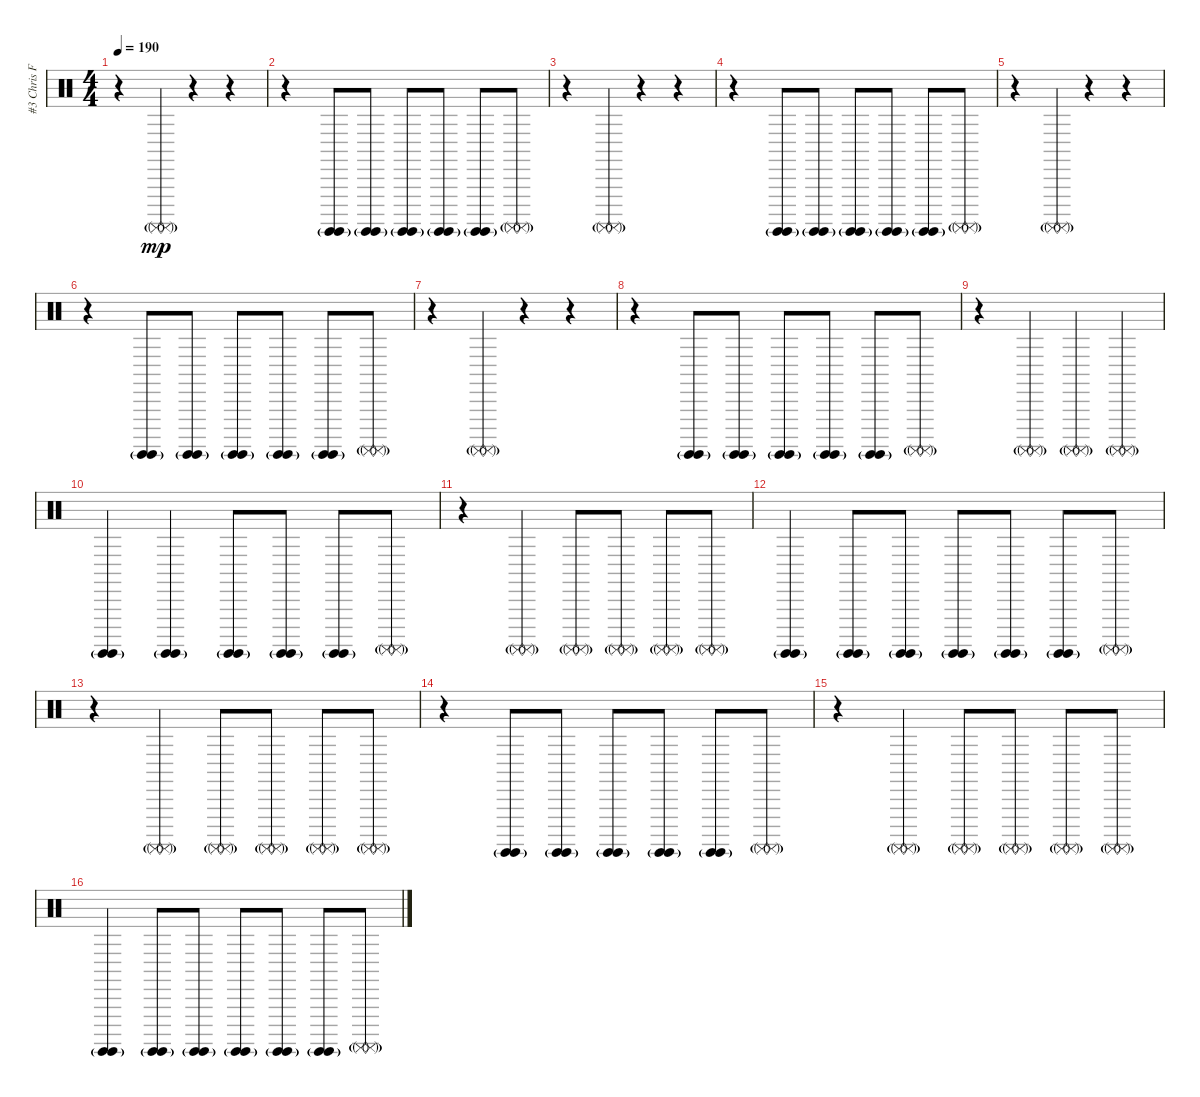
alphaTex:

\track ("#3 Chris Fehn" "#3 Chris F") {instrument percussion}
\staff {score}
\articulation defaults
\ts (4 4)
\tempo 190
\clef neutral
\ks c
r.4{dy mp} ("Surdo (mute)"{g} "Surdo (mute)"{g}).4 r.4 r.4 |
r.4 ("Surdo (hit)"{g} "Surdo (hit)"{g}).8 ("Surdo (hit)"{g} "Surdo (hit)"{g}).8 ("Surdo (hit)"{g} "Surdo (hit)"{g}).8 ("Surdo (hit)"{g} "Surdo (hit)"{g}).8 ("Surdo (hit)"{g} "Surdo (hit)"{g}).8 ("Surdo (mute)"{g} "Surdo (mute)"{g}).8 |
r.4 ("Surdo (mute)"{g} "Surdo (mute)"{g}).4 r.4 r.4 |
r.4 ("Surdo (hit)"{g} "Surdo (hit)"{g}).8 ("Surdo (hit)"{g} "Surdo (hit)"{g}).8 ("Surdo (hit)"{g} "Surdo (hit)"{g}).8 ("Surdo (hit)"{g} "Surdo (hit)"{g}).8 ("Surdo (hit)"{g} "Surdo (hit)"{g}).8 ("Surdo (mute)"{g} "Surdo (mute)"{g}).8 |
r.4 ("Surdo (mute)"{g} "Surdo (mute)"{g}).4 r.4 r.4 |
r.4 ("Surdo (hit)"{g} "Surdo (hit)"{g}).8 ("Surdo (hit)"{g} "Surdo (hit)"{g}).8 ("Surdo (hit)"{g} "Surdo (hit)"{g}).8 ("Surdo (hit)"{g} "Surdo (hit)"{g}).8 ("Surdo (hit)"{g} "Surdo (hit)"{g}).8 ("Surdo (mute)"{g} "Surdo (mute)"{g}).8 |
r.4 ("Surdo (mute)"{g} "Surdo (mute)"{g}).4 r.4 r.4 |
r.4 ("Surdo (hit)"{g} "Surdo (hit)"{g}).8 ("Surdo (hit)"{g} "Surdo (hit)"{g}).8 ("Surdo (hit)"{g} "Surdo (hit)"{g}).8 ("Surdo (hit)"{g} "Surdo (hit)"{g}).8 ("Surdo (hit)"{g} "Surdo (hit)"{g}).8 ("Surdo (mute)"{g} "Surdo (mute)"{g}).8 |
r.4 ("Surdo (mute)"{g} "Surdo (mute)"{g}).4 ("Surdo (mute)"{g} "Surdo (mute)"{g}).4 ("Surdo (mute)"{g} "Surdo (mute)"{g}).4 |
("Surdo (hit)"{g} "Surdo (hit)"{g}).4 ("Surdo (hit)"{g} "Surdo (hit)"{g}).4 ("Surdo (hit)"{g} "Surdo (hit)"{g}).8 ("Surdo (hit)"{g} "Surdo (hit)"{g}).8 ("Surdo (hit)"{g} "Surdo (hit)"{g}).8 ("Surdo (mute)"{g} "Surdo (mute)"{g}).8 |
r.4 ("Surdo (mute)"{g} "Surdo (mute)"{g}).4 ("Surdo (mute)"{g} "Surdo (mute)"{g}).8 ("Surdo (mute)"{g} "Surdo (mute)"{g}).8 ("Surdo (mute)"{g} "Surdo (mute)"{g}).8 ("Surdo (mute)"{g} "Surdo (mute)"{g}).8 |
("Surdo (hit)"{g} "Surdo (hit)"{g}).4 ("Surdo (hit)"{g} "Surdo (hit)"{g}).8 ("Surdo (hit)"{g} "Surdo (hit)"{g}).8 ("Surdo (hit)"{g} "Surdo (hit)"{g}).8 ("Surdo (hit)"{g} "Surdo (hit)"{g}).8 ("Surdo (hit)"{g} "Surdo (hit)"{g}).8 ("Surdo (mute)"{g} "Surdo (mute)"{g}).8 |
r.4 ("Surdo (mute)"{g} "Surdo (mute)"{g}).4 ("Surdo (mute)"{g} "Surdo (mute)"{g}).8 ("Surdo (mute)"{g} "Surdo (mute)"{g}).8 ("Surdo (mute)"{g} "Surdo (mute)"{g}).8 ("Surdo (mute)"{g} "Surdo (mute)"{g}).8 |
r.4 ("Surdo (hit)"{g} "Surdo (hit)"{g}).8 ("Surdo (hit)"{g} "Surdo (hit)"{g}).8 ("Surdo (hit)"{g} "Surdo (hit)"{g}).8 ("Surdo (hit)"{g} "Surdo (hit)"{g}).8 ("Surdo (hit)"{g} "Surdo (hit)"{g}).8 ("Surdo (mute)"{g} "Surdo (mute)"{g}).8 |
r.4 ("Surdo (mute)"{g} "Surdo (mute)"{g}).4 ("Surdo (mute)"{g} "Surdo (mute)"{g}).8 ("Surdo (mute)"{g} "Surdo (mute)"{g}).8 ("Surdo (mute)"{g} "Surdo (mute)"{g}).8 ("Surdo (mute)"{g} "Surdo (mute)"{g}).8 |
("Surdo (hit)"{g} "Surdo (hit)"{g}).4 ("Surdo (hit)"{g} "Surdo (hit)"{g}).8 ("Surdo (hit)"{g} "Surdo (hit)"{g}).8 ("Surdo (hit)"{g} "Surdo (hit)"{g}).8 ("Surdo (hit)"{g} "Surdo (hit)"{g}).8 ("Surdo (hit)"{g} "Surdo (hit)"{g}).8 ("Surdo (mute)"{g} "Surdo (mute)"{g}).8
